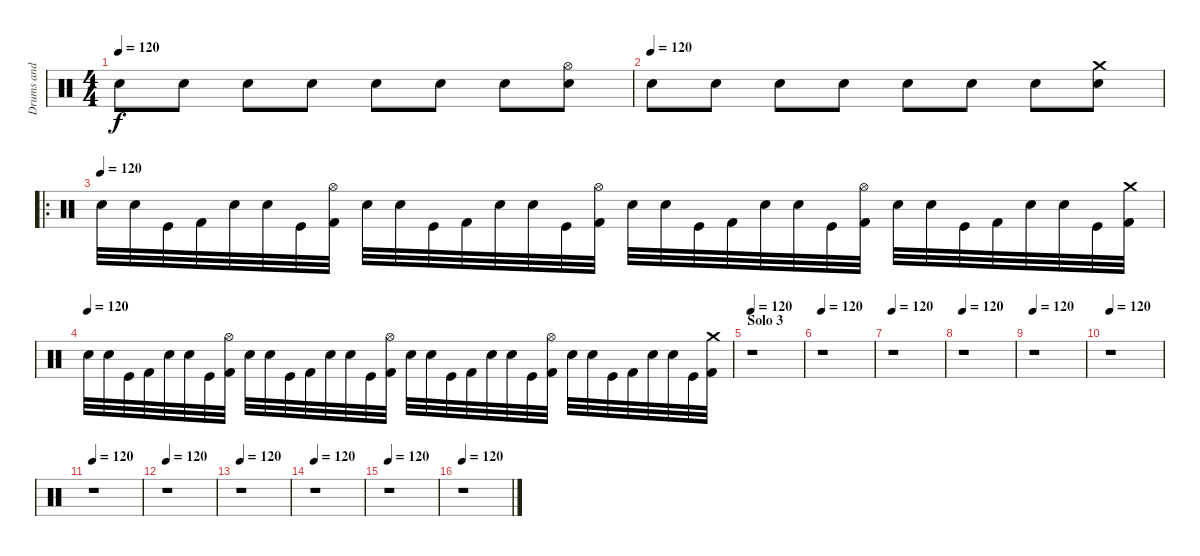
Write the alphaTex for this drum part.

\track ("Drums and Percussion" "Drums and ") {instrument percussion}
\staff {score}
\articulation defaults
\ts (4 4)
\tempo 120
\clef neutral
\ks c "Electric Snare (hit)".8{dy f} "Electric Snare (hit)".8 "Snare (hit) 2".8 "Snare (hit) 2".8 "Electric Snare (hit)".8 "Electric Snare (hit)".8 "Snare (hit) 2".8
("Hi-Hat (open)" "Snare (hit) 2").8 |
\tempo (120)
"Electric Snare (hit)".8 "Electric Snare (hit)".8 "Snare (hit) 2".8 "Snare (hit) 2".8 "Electric Snare (hit)".8 "Electric Snare (hit)".8 "Snare (hit) 2".8 ("Crash medium (hit)" "Snare (hit) 2").8 |
\ro
\tempo (120)
"Electric Snare (hit)".32 "Snare (hit) 2".32 "Kick (hit)".32 "Kick (hit) 2".32 "Electric Snare (hit)".32 "Snare (hit) 2".32 "Kick (hit)".32 ("Hi-Hat (open)" "Kick (hit) 2").32 "Electric Snare (hit)".32 "Snare (hit) 2".32 "Kick (hit)".32 "Kick (hit) 2".32 "Electric Snare (hit)".32 "Snare (hit) 2".32 "Kick (hit)".32 ("Hi-Hat (open)" "Kick (hit) 2").32 "Electric Snare (hit)".32 "Snare (hit) 2".32 "Kick (hit)".32 "Kick (hit) 2".32 "Electric Snare (hit)".32 "Snare (hit) 2".32 "Kick (hit)".32 ("Hi-Hat (open)" "Kick (hit) 2").32 "Electric Snare (hit)".32 "Snare (hit) 2".32 "Kick (hit)".32 "Kick (hit) 2".32 "Electric Snare (hit)".32 "Snare (hit) 2".32 "Kick (hit)".32 ("Crash medium (hit)" "Kick (hit) 2").32 |
\tempo (120)
"Electric Snare (hit)".32 "Snare (hit) 2".32 "Kick (hit)".32 "Kick (hit) 2".32 "Electric Snare (hit)".32 "Snare (hit) 2".32 "Kick (hit)".32 ("Hi-Hat (open)" "Kick (hit) 2").32 "Electric Snare (hit)".32 "Snare (hit) 2".32 "Kick (hit)".32 "Kick (hit) 2".32 "Electric Snare (hit)".32 "Snare (hit) 2".32 "Kick (hit)".32 ("Hi-Hat (open)" "Kick (hit) 2").32 "Electric Snare (hit)".32 "Snare (hit) 2".32 "Kick (hit)".32 "Kick (hit) 2".32 "Electric Snare (hit)".32 "Snare (hit) 2".32 "Kick (hit)".32 ("Hi-Hat (open)" "Kick (hit) 2").32 "Electric Snare (hit)".32 "Snare (hit) 2".32 "Kick (hit)".32 "Kick (hit) 2".32 "Electric Snare (hit)".32 "Snare (hit) 2".32 "Kick (hit)".32 ("Crash medium (hit)" "Kick (hit) 2").32 |
\section ("" "Solo 3")
\tempo 120
r.1 |
\tempo 120
r.1 |
\tempo 120
r.1 |
\tempo 120
r.1 |
\tempo 120
r.1 |
\tempo 120
r.1 |
\tempo 120
r.1 |
\tempo 120
r.1 |
\tempo 120
r.1 |
\tempo 120
r.1 |
\tempo 120
r.1 |
\tempo 120
r.1
